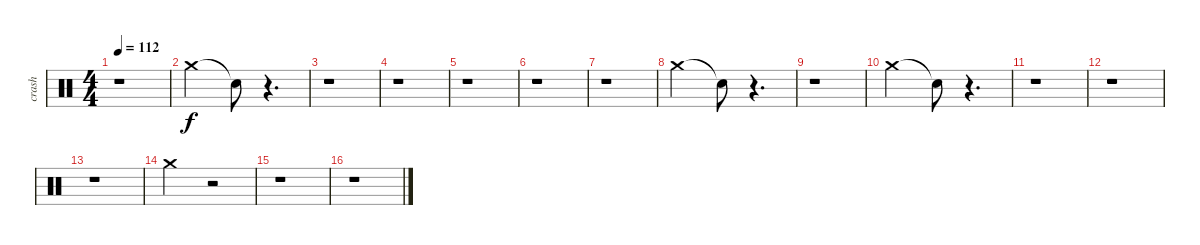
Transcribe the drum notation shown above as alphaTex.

\track ("crash" "crash") {instrument percussion}
\staff {score}
\articulation defaults
\ts (4 4)
\tempo 112
\clef neutral
\ks c
r.1{dy f} |
"Crash medium (hit)".2 "Snare (hit)"{t}.8 r.4{d} |
r.1 |
r.1 |
r.1 |
r.1 |
r.1 |
"Crash medium (hit)".2 "Snare (hit)"{t}.8 r.4{d} |
r.1 |
"Crash medium (hit)".2 "Snare (hit)"{t}.8 r.4{d} |
r.1 |
r.1 |
r.1 |
"Crash medium (hit)".2 r.2 |
r.1 |
r.1
